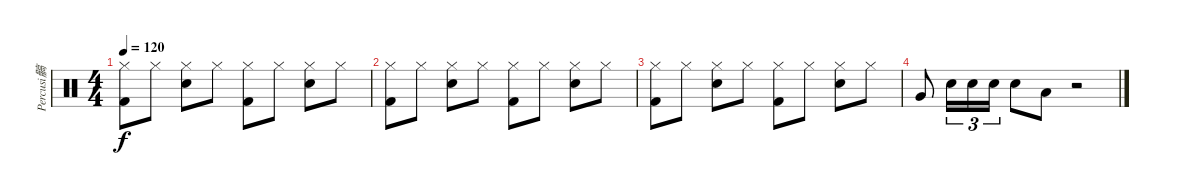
\track ("Percusi髇" "Percusi髇") {instrument percussion}
\staff {score}
\articulation defaults
\ts (4 4)
\tempo 120
\clef neutral
\ks c
("Kick (hit) 2" "Hi-Hat (closed)").8{dy f} "Hi-Hat (closed)".8 ("Electric Snare (hit)" "Hi-Hat (closed)").8 "Hi-Hat (closed)".8 ("Kick (hit) 2" "Hi-Hat (closed)").8 "Hi-Hat (closed)".8 ("Electric Snare (hit)" "Hi-Hat (closed)").8 "Hi-Hat (closed)".8 |
("Kick (hit) 2" "Hi-Hat (closed)").8 "Hi-Hat (closed)".8 ("Electric Snare (hit)" "Hi-Hat (closed)").8 "Hi-Hat (closed)".8 ("Kick (hit) 2" "Hi-Hat (closed)").8 "Hi-Hat (closed)".8 ("Electric Snare (hit)" "Hi-Hat (closed)").8 "Hi-Hat (closed)".8 |
("Kick (hit) 2" "Hi-Hat (closed)").8 "Hi-Hat (closed)".8 ("Electric Snare (hit)" "Hi-Hat (closed)").8 "Hi-Hat (closed)".8 ("Kick (hit) 2" "Hi-Hat (closed)").8 "Hi-Hat (closed)".8 ("Electric Snare (hit)" "Hi-Hat (closed)").8 "Hi-Hat (closed)".8 |
"Very Low Tom (hit)".8 "Electric Snare (hit)".16{tu (3 2)} "Electric Snare (hit)".16{tu (3 2)} "Electric Snare (hit)".16{tu (3 2)} "Electric Snare (hit)".8 "Low Floor Tom (hit)".8 r.2
